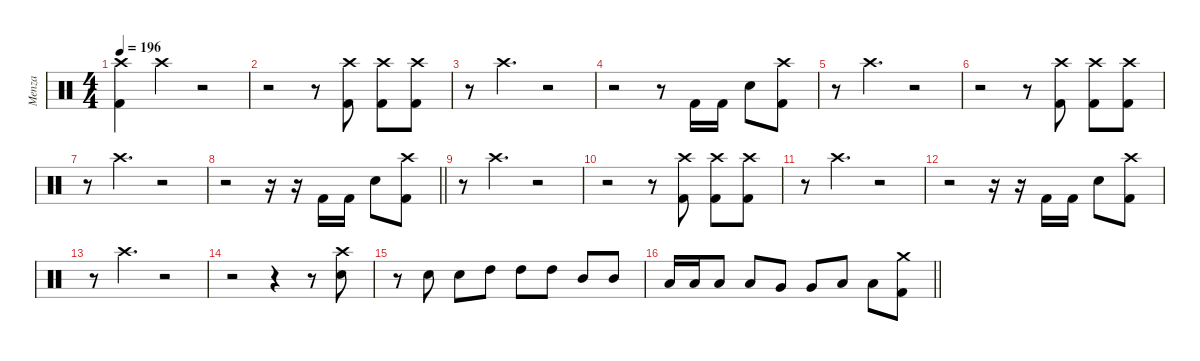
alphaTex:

\defaultSystemsLayout 4
\hideDynamics
\bracketExtendMode nobrackets
\firstSystemTrackNameMode fullname
\otherSystemsTrackNameOrientation horizontal
\track ("Menza" "drm.") {instrument percussion}
\staff {score}
\articulation defaults
\ts (4 4)
\beaming (8 2 2 2 2)
\tempo 196
\clef neutral
\ks c
("Crash high (hit)" "Kick (hit) 2").4{dy ff beam Down} "Crash high (hit)".4{dy ppp beam Down} r.2{beam Down} |
r.2{beam Down} r.8{beam Down} ("Crash high (hit)" "Kick (hit) 2").8{dy f beam Down} ("Crash high (hit)" "Kick (hit) 2").8{beam Down} ("Crash high (hit)" "Kick (hit) 2").8{dy ff beam Down} |
r.8{beam Down} "Crash high (hit)".4{d dy ppp beam Down} r.2{beam Down} |
r.2{beam Down} r.8{beam Down} "Kick (hit) 2".16{dy ff beam Up} "Kick (hit) 2".16{beam Up} "Snare (hit) 2".8{beam Down} ("Crash high (hit)" "Kick (hit) 2").8{beam Down} |
r.8{beam Down} "Crash high (hit)".4{d dy ppp beam Down} r.2{beam Down} |
r.2{beam Down} r.8{beam Down} ("Crash high (hit)" "Kick (hit) 2").8{dy f beam Down} ("Crash high (hit)" "Kick (hit) 2").8{beam Down} ("Crash high (hit)" "Kick (hit) 2").8{dy ff beam Down} |
r.8{beam Down} "Crash high (hit)".4{d dy ppp beam Down} r.2{beam Down} |
\barLineRight lightlight
r.2{beam Down} r.16{beam Down} r.16{beam Down} "Kick (hit) 2".16{dy ff beam Up} "Kick (hit) 2".16{beam Up} "Snare (hit) 2".8{beam Down} ("Crash high (hit)" "Kick (hit) 2").8{beam Down} |
r.8{beam Down} "Crash high (hit)".4{d dy ppp beam Down} r.2{beam Down} |
r.2{beam Down} r.8{beam Down} ("Crash high (hit)" "Kick (hit) 2").8{dy f beam Down} ("Crash high (hit)" "Kick (hit) 2").8{beam Down} ("Crash high (hit)" "Kick (hit) 2").8{dy ff beam Down} |
r.8{beam Down} "Crash high (hit)".4{d dy ppp beam Down} r.2{beam Down} |
r.2{beam Down} r.16{beam Down} r.16{beam Down} "Kick (hit) 2".16{dy ff beam Up} "Kick (hit) 2".16{beam Up} "Snare (hit) 2".8{beam Down} ("Crash high (hit)" "Kick (hit) 2").8{beam Down} |
r.8{beam Down} "Crash high (hit)".4{d dy ppp beam Down} r.2{beam Down} |
r.2{beam Down} r.4{beam Down} r.8{beam Down} ("Crash high (hit)" "Snare (hit) 2").8{dy ff beam Down} |
r.8{beam Down} "Snare (hit) 2".8{beam Down} "Snare (hit) 2".8{beam Down} "High Tom (hit)".8{dy f beam Down} "High Tom (hit)".8{dy ff beam Down} "High Tom (hit)".8{beam Down} "Mid Tom (hit)".8{beam Up} "Mid Tom (hit)".8{beam Up} |
\barLineRight lightlight "Low Tom (hit)".16{beam Up} "Low Tom (hit)".16{beam Up} "Low Tom (hit)".8{beam Up} "Low Tom (hit)".8{dy f beam Up} "Very Low Tom (hit)".8{dy ff beam Up} "Very Low Tom (hit)".8{beam Up} "Low Floor Tom (hit)".8{beam Up} "Low Floor Tom (hit)".8{beam Down}
("Crash medium (hit)" "Kick (hit) 2").8{beam Down}
